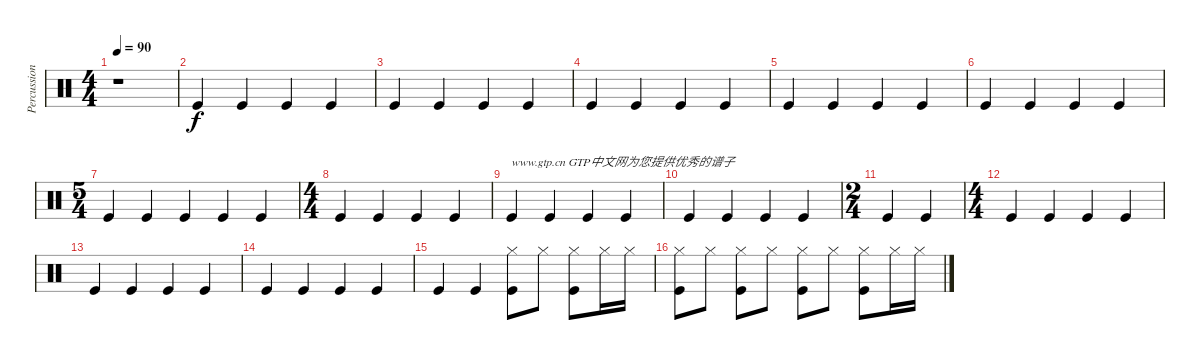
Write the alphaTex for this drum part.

\track ("Percussion" "Percussion") {instrument percussion}
\staff {score}
\articulation defaults
\ts (4 4)
\tempo 90
\clef neutral
\ks c
r.1{dy f} |
"Kick (hit)".4 "Kick (hit)".4 "Kick (hit)".4 "Kick (hit)".4 |
"Kick (hit)".4 "Kick (hit)".4 "Kick (hit)".4 "Kick (hit)".4 |
"Kick (hit)".4 "Kick (hit)".4 "Kick (hit)".4 "Kick (hit)".4 |
"Kick (hit)".4 "Kick (hit)".4 "Kick (hit)".4 "Kick (hit)".4 |
"Kick (hit)".4 "Kick (hit)".4 "Kick (hit)".4 "Kick (hit)".4 |
\ts (5 4)
"Kick (hit)".4 "Kick (hit)".4 "Kick (hit)".4 "Kick (hit)".4 "Kick (hit)".4 |
\ts (4 4)
"Kick (hit)".4 "Kick (hit)".4 "Kick (hit)".4 "Kick (hit)".4 |
"Kick (hit)".4{txt "www.gtp.cn GTP中文网为您提供优秀的谱子"} "Kick (hit)".4 "Kick (hit)".4 "Kick (hit)".4 |
"Kick (hit)".4 "Kick (hit)".4 "Kick (hit)".4 "Kick (hit)".4 |
\ts (2 4)
"Kick (hit)".4 "Kick (hit)".4 |
\ts (4 4)
"Kick (hit)".4 "Kick (hit)".4 "Kick (hit)".4 "Kick (hit)".4 |
"Kick (hit)".4 "Kick (hit)".4 "Kick (hit)".4 "Kick (hit)".4 |
"Kick (hit)".4 "Kick (hit)".4 "Kick (hit)".4 "Kick (hit)".4 |
"Kick (hit)".4 "Kick (hit)".4 ("Hi-Hat (closed)" "Kick (hit)").8 "Hi-Hat (closed)".8 ("Hi-Hat (closed)" "Kick (hit)").8 "Hi-Hat (closed)".16 "Hi-Hat (closed)".16 |
("Hi-Hat (closed)" "Kick (hit)").8 "Hi-Hat (closed)".8 ("Hi-Hat (closed)" "Kick (hit)").8 "Hi-Hat (closed)".8 ("Hi-Hat (closed)" "Kick (hit)").8 "Hi-Hat (closed)".8 ("Hi-Hat (closed)" "Kick (hit)").8 "Hi-Hat (closed)".16 "Hi-Hat (closed)".16
